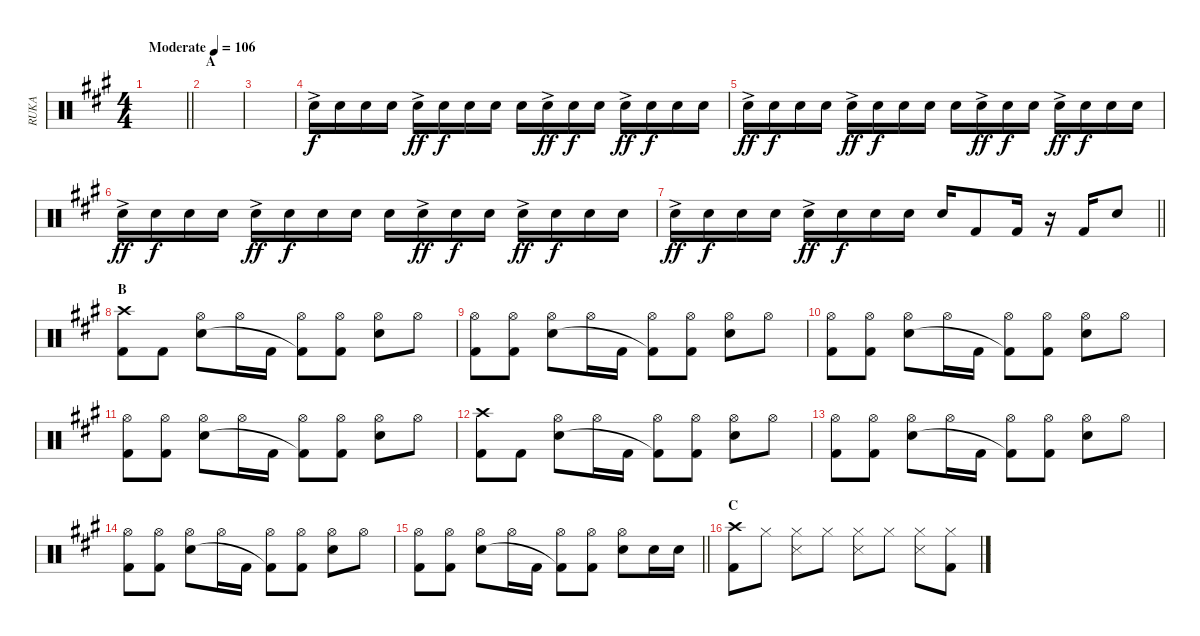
\track ("RUKA" "RUKA") {instrument percussion}
\staff {score}
\articulation defaults
\ts (4 4)
\tempo (106 "Moderate")
\clef neutral
\barLineRight lightlight
\ks a
|
\section ("" "A")
|
|
"Snare (hit) 2"{ac}.16 "Snare (hit) 2".16{dy f} "Snare (hit) 2".16 "Snare (hit) 2".16 "Snare (hit) 2"{ac}.16{dy ff} "Snare (hit) 2".16{dy f} "Snare (hit) 2".16 "Snare (hit) 2".16 "Snare (hit) 2".16 "Snare (hit) 2"{ac}.16{dy ff} "Snare (hit) 2".16{dy f} "Snare (hit) 2".16 "Snare (hit) 2"{ac}.16{dy ff} "Snare (hit) 2".16{dy f} "Snare (hit) 2".16 "Snare (hit) 2".16 |
"Snare (hit) 2"{ac}.16{dy ff} "Snare (hit) 2".16{dy f} "Snare (hit) 2".16 "Snare (hit) 2".16 "Snare (hit) 2"{ac}.16{dy ff} "Snare (hit) 2".16{dy f} "Snare (hit) 2".16 "Snare (hit) 2".16 "Snare (hit) 2".16 "Snare (hit) 2"{ac}.16{dy ff} "Snare (hit) 2".16{dy f} "Snare (hit) 2".16 "Snare (hit) 2"{ac}.16{dy ff} "Snare (hit) 2".16{dy f} "Snare (hit) 2".16 "Snare (hit) 2".16 |
"Snare (hit) 2"{ac}.16{dy ff} "Snare (hit) 2".16{dy f} "Snare (hit) 2".16 "Snare (hit) 2".16 "Snare (hit) 2"{ac}.16{dy ff} "Snare (hit) 2".16{dy f} "Snare (hit) 2".16 "Snare (hit) 2".16 "Snare (hit) 2".16 "Snare (hit) 2"{ac}.16{dy ff} "Snare (hit) 2".16{dy f} "Snare (hit) 2".16 "Snare (hit) 2"{ac}.16{dy ff} "Snare (hit) 2".16{dy f} "Snare (hit) 2".16 "Snare (hit) 2".16 |
\barLineRight lightlight "Snare (hit) 2"{ac}.16{dy ff} "Snare (hit) 2".16{dy f} "Snare (hit) 2".16 "Snare (hit) 2".16 "Snare (hit) 2"{ac}.16{dy ff} "Snare (hit) 2".16{dy f} "Snare (hit) 2".16 "Snare (hit) 2".16 "Snare (hit) 2".16 "Kick (hit) 2".8 "Kick (hit) 2".16
r.16 "Kick (hit) 2".16 "Snare (hit) 2".8 |
\section ("" "B")
("Crash high (hit)" "Kick (hit) 2").8 "Kick (hit) 2".8 ("Hi-Hat (open)" "Snare (hit) 2").8 "Hi-Hat (open)".16 "Kick (hit) 2".16 ("Hi-Hat (open)" "Kick (hit) 2"{t}).8 ("Hi-Hat (open)" "Kick (hit) 2").8 ("Hi-Hat (open)" "Snare (hit) 2").8 "Hi-Hat (open)".8 |
("Hi-Hat (open)" "Kick (hit) 2").8 ("Hi-Hat (open)" "Kick (hit) 2").8 ("Hi-Hat (open)" "Snare (hit) 2").8 "Hi-Hat (open)".16 "Kick (hit) 2".16 ("Hi-Hat (open)" "Kick (hit) 2"{t}).8 ("Hi-Hat (open)" "Kick (hit) 2").8 ("Hi-Hat (open)" "Snare (hit) 2").8 "Hi-Hat (open)".8 |
("Hi-Hat (open)" "Kick (hit) 2").8 ("Hi-Hat (open)" "Kick (hit) 2").8 ("Hi-Hat (open)" "Snare (hit) 2").8 "Hi-Hat (open)".16 "Kick (hit) 2".16 ("Hi-Hat (open)" "Kick (hit) 2"{t}).8 ("Hi-Hat (open)" "Kick (hit) 2").8 ("Hi-Hat (open)" "Snare (hit) 2").8 "Hi-Hat (open)".8 |
("Hi-Hat (open)" "Kick (hit) 2").8 ("Hi-Hat (open)" "Kick (hit) 2").8 ("Hi-Hat (open)" "Snare (hit) 2").8 "Hi-Hat (open)".16 "Kick (hit) 2".16 ("Hi-Hat (open)" "Kick (hit) 2"{t}).8 ("Hi-Hat (open)" "Kick (hit) 2").8 ("Hi-Hat (open)" "Snare (hit) 2").8 "Hi-Hat (open)".8 |
("Crash high (hit)" "Kick (hit) 2").8 "Kick (hit) 2".8 ("Hi-Hat (open)" "Snare (hit) 2").8 "Hi-Hat (open)".16 "Kick (hit) 2".16 ("Hi-Hat (open)" "Kick (hit) 2"{t}).8 ("Hi-Hat (open)" "Kick (hit) 2").8 ("Hi-Hat (open)" "Snare (hit) 2").8 "Hi-Hat (open)".8 |
("Hi-Hat (open)" "Kick (hit) 2").8 ("Hi-Hat (open)" "Kick (hit) 2").8 ("Hi-Hat (open)" "Snare (hit) 2").8 "Hi-Hat (open)".16 "Kick (hit) 2".16 ("Hi-Hat (open)" "Kick (hit) 2"{t}).8 ("Hi-Hat (open)" "Kick (hit) 2").8 ("Hi-Hat (open)" "Snare (hit) 2").8 "Hi-Hat (open)".8 |
("Hi-Hat (open)" "Kick (hit) 2").8 ("Hi-Hat (open)" "Kick (hit) 2").8 ("Hi-Hat (open)" "Snare (hit) 2").8 "Hi-Hat (open)".16 "Kick (hit) 2".16 ("Hi-Hat (open)" "Kick (hit) 2"{t}).8 ("Hi-Hat (open)" "Kick (hit) 2").8 ("Hi-Hat (open)" "Snare (hit) 2").8 "Hi-Hat (open)".8 |
\barLineRight lightlight
("Hi-Hat (open)" "Kick (hit) 2").8 ("Hi-Hat (open)" "Kick (hit) 2").8 ("Hi-Hat (open)" "Snare (hit) 2").8 "Hi-Hat (open)".16 "Kick (hit) 2".16 ("Hi-Hat (open)" "Kick (hit) 2"{t}).8 ("Hi-Hat (open)" "Kick (hit) 2").8 ("Hi-Hat (open)" "Snare (hit) 2").8 "Snare (hit) 2".16 "Snare (hit) 2".16 |
\section ("" "C")
("Crash high (hit)" "Kick (hit) 2").8 "Hi-Hat (closed)".8 ("Hi-Hat (closed)" "Snare (side stick) 3").8 "Hi-Hat (closed)".8 ("Hi-Hat (closed)" "Snare (side stick) 3").8 "Hi-Hat (closed)".8 ("Hi-Hat (closed)" "Snare (side stick) 3").8 ("Hi-Hat (closed)" "Kick (hit) 2").8
